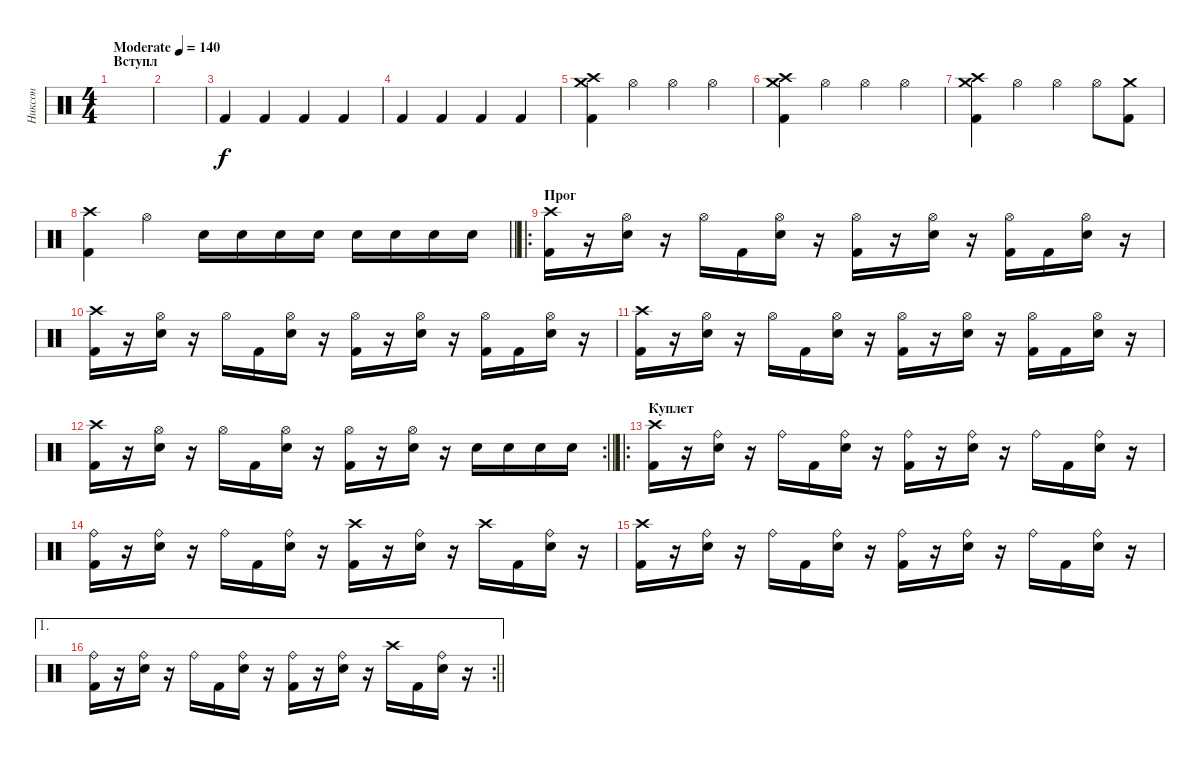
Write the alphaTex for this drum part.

\track ("Никсон" "Никсон") {instrument percussion}
\staff {score}
\articulation defaults
\ts (4 4)
\section ("" "Вступл")
\tempo (140 "Moderate")
\clef neutral
\ks c
|
|
"Kick (hit) 2".4 "Kick (hit) 2".4 "Kick (hit) 2".4 "Kick (hit) 2".4 |
"Kick (hit) 2".4 "Kick (hit) 2".4 "Kick (hit) 2".4 "Kick (hit) 2".4 |
("Crash high (hit)" "Crash medium (hit)" "Kick (hit) 2").4 "Hi-Hat (open)".4 "Hi-Hat (open)".4 "Hi-Hat (open)".4 |
("Crash high (hit)" "Crash medium (hit)" "Kick (hit) 2").4 "Hi-Hat (open)".4 "Hi-Hat (open)".4 "Hi-Hat (open)".4 |
("Crash high (hit)" "Crash medium (hit)" "Kick (hit) 2").4 "Hi-Hat (open)".4 "Hi-Hat (open)".4 "Hi-Hat (open)".8 ("Crash medium (hit)" "Kick (hit) 2").8 |
\barLineRight lightlight
("Crash high (hit)" "Kick (hit) 2").4 "Hi-Hat (open)".4 "Snare (hit) 2".16 "Snare (hit) 2".16 "Snare (hit) 2".16 "Snare (hit) 2".16 "Snare (hit) 2".16 "Snare (hit) 2".16 "Snare (hit) 2".16 "Snare (hit) 2".16 |
\ro
\section ("" "Прог")
("Crash high (hit)" "Kick (hit) 2").16 r.16 ("Hi-Hat (open)" "Snare (hit) 2").16 r.16 "Hi-Hat (open)".16 "Kick (hit) 2".16 ("Hi-Hat (open)" "Snare (hit) 2").16 r.16 ("Hi-Hat (open)" "Kick (hit) 2").16 r.16 ("Hi-Hat (open)" "Snare (hit) 2").16 r.16 ("Hi-Hat (open)" "Kick (hit) 2").16 "Kick (hit) 2".16 ("Hi-Hat (open)" "Snare (hit) 2").16 r.16 |
("Crash high (hit)" "Kick (hit) 2").16 r.16 ("Hi-Hat (open)" "Snare (hit) 2").16 r.16 "Hi-Hat (open)".16 "Kick (hit) 2".16 ("Hi-Hat (open)" "Snare (hit) 2").16 r.16 ("Hi-Hat (open)" "Kick (hit) 2").16 r.16 ("Hi-Hat (open)" "Snare (hit) 2").16 r.16 ("Hi-Hat (open)" "Kick (hit) 2").16 "Kick (hit) 2".16 ("Hi-Hat (open)" "Snare (hit) 2").16 r.16 |
("Crash high (hit)" "Kick (hit) 2").16 r.16 ("Hi-Hat (open)" "Snare (hit) 2").16 r.16 "Hi-Hat (open)".16 "Kick (hit) 2".16 ("Hi-Hat (open)" "Snare (hit) 2").16 r.16 ("Hi-Hat (open)" "Kick (hit) 2").16 r.16 ("Hi-Hat (open)" "Snare (hit) 2").16 r.16 ("Hi-Hat (open)" "Kick (hit) 2").16 "Kick (hit) 2".16 ("Hi-Hat (open)" "Snare (hit) 2").16 r.16 |
\rc 2
\barLineRight lightlight
("Crash high (hit)" "Kick (hit) 2").16 r.16 ("Hi-Hat (open)" "Snare (hit) 2").16 r.16 "Hi-Hat (open)".16 "Kick (hit) 2".16 ("Hi-Hat (open)" "Snare (hit) 2").16 r.16 ("Hi-Hat (open)" "Kick (hit) 2").16 r.16 ("Hi-Hat (open)" "Snare (hit) 2").16 r.16 "Snare (hit) 2".16 "Snare (hit) 2".16 "Snare (hit) 2".16 "Snare (hit) 2".16 |
\ro
\section ("" "Куплет")
("Crash high (hit)" "Kick (hit) 2").16 r.16 ("Ride (bell)" "Snare (hit) 2").16 r.16 "Ride (bell)".16 "Kick (hit) 2".16 ("Ride (bell)" "Snare (hit) 2").16 r.16 ("Ride (bell)" "Kick (hit) 2").16 r.16 ("Ride (bell)" "Snare (hit) 2").16 r.16 "Ride (bell)".16 "Kick (hit) 2".16 ("Ride (bell)" "Snare (hit) 2").16 r.16 |
("Ride (bell)" "Kick (hit) 2").16 r.16 ("Ride (bell)" "Snare (hit) 2").16 r.16 "Ride (bell)".16 "Kick (hit) 2".16 ("Ride (bell)" "Snare (hit) 2").16 r.16 ("Crash high (hit)" "Kick (hit) 2").16 r.16 ("Ride (bell)" "Snare (hit) 2").16 r.16 "Crash high (hit)".16 "Kick (hit) 2".16 ("Ride (bell)" "Snare (hit) 2").16 r.16 |
("Crash high (hit)" "Kick (hit) 2").16 r.16 ("Ride (bell)" "Snare (hit) 2").16 r.16 "Ride (bell)".16 "Kick (hit) 2".16 ("Ride (bell)" "Snare (hit) 2").16 r.16 ("Ride (bell)" "Kick (hit) 2").16 r.16 ("Ride (bell)" "Snare (hit) 2").16 r.16 "Ride (bell)".16 "Kick (hit) 2".16 ("Ride (bell)" "Snare (hit) 2").16 r.16 |
\ae 1
\rc 2
\barLineRight lightlight
("Ride (bell)" "Kick (hit) 2").16 r.16 ("Ride (bell)" "Snare (hit) 2").16 r.16 "Ride (bell)".16 "Kick (hit) 2".16 ("Ride (bell)" "Snare (hit) 2").16 r.16 ("Ride (bell)" "Kick (hit) 2").16 r.16 ("Ride (bell)" "Snare (hit) 2").16 r.16 "Crash high (hit)".16 "Kick (hit) 2".16 ("Ride (bell)" "Snare (hit) 2").16 r.16
